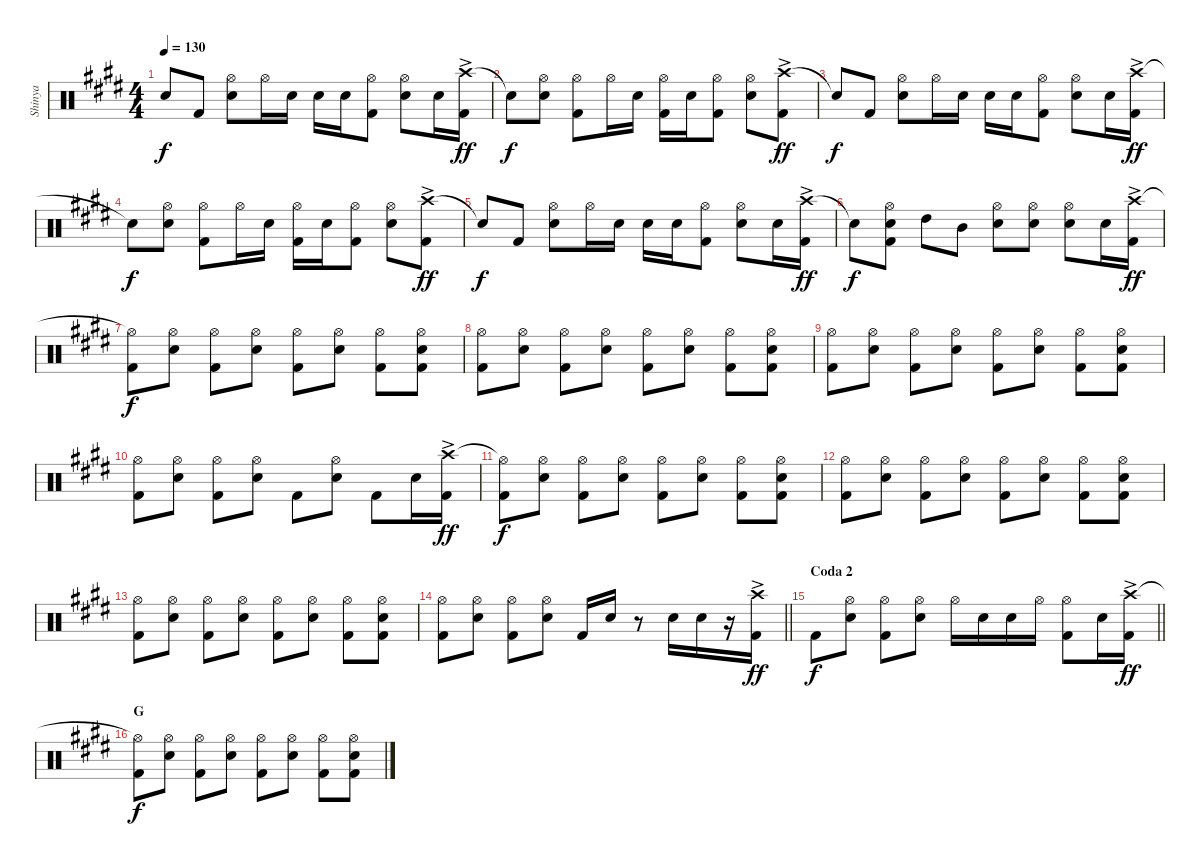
\track ("Shinya" "Shinya") {instrument percussion}
\staff {score}
\articulation defaults
\ts (4 4)
\tempo 130
\clef neutral
\ks c#minor "Snare (hit)"{t}.8{dy f} "Kick (hit) 2".8
("Hi-Hat (open)" "Snare (hit) 2").8 "Hi-Hat (open)".16 "Snare (hit) 2".16 "Snare (hit) 2".16 "Snare (hit) 2".16 ("Hi-Hat (open)" "Kick (hit) 2").8 ("Hi-Hat (open)" "Snare (hit) 2").8 "Snare (hit) 2".16 ("Crash high (hit)"{ac} "Kick (hit) 2").16{dy ff} |
"Snare (hit)"{t}.8{dy f} ("Hi-Hat (open)" "Snare (hit) 2").8 ("Hi-Hat (open)" "Kick (hit) 2").8 "Hi-Hat (open)".16 "Snare (hit) 2".16 ("Hi-Hat (open)" "Kick (hit) 2").16 "Snare (hit) 2".16 ("Hi-Hat (open)" "Kick (hit) 2").8 ("Hi-Hat (open)" "Snare (hit) 2").8 ("Crash high (hit)"{ac} "Kick (hit) 2").8{dy ff} |
"Snare (hit)"{t}.8{dy f} "Kick (hit) 2".8 ("Hi-Hat (open)" "Snare (hit) 2").8 "Hi-Hat (open)".16 "Snare (hit) 2".16 "Snare (hit) 2".16 "Snare (hit) 2".16 ("Hi-Hat (open)" "Kick (hit) 2").8 ("Hi-Hat (open)" "Snare (hit) 2").8 "Snare (hit) 2".16 ("Crash high (hit)"{ac} "Kick (hit) 2").16{dy ff} |
"Snare (hit)"{t}.8{dy f} ("Hi-Hat (open)" "Snare (hit) 2").8 ("Hi-Hat (open)" "Kick (hit) 2").8 "Hi-Hat (open)".16 "Snare (hit) 2".16 ("Hi-Hat (open)" "Kick (hit) 2").16 "Snare (hit) 2".16 ("Hi-Hat (open)" "Kick (hit) 2").8 ("Hi-Hat (open)" "Snare (hit) 2").8 ("Crash high (hit)"{ac} "Kick (hit) 2").8{dy ff} |
"Snare (hit)"{t}.8{dy f} "Kick (hit) 2".8 ("Hi-Hat (open)" "Snare (hit) 2").8 "Hi-Hat (open)".16 "Snare (hit) 2".16 "Snare (hit) 2".16 "Snare (hit) 2".16 ("Hi-Hat (open)" "Kick (hit) 2").8 ("Hi-Hat (open)" "Snare (hit) 2").8 "Snare (hit) 2".16 ("Crash high (hit)"{ac} "Kick (hit) 2").16{dy ff} |
"Snare (hit)"{t}.8{dy f} ("Hi-Hat (open)" "Snare (hit) 2" "Kick (hit) 2").8 "High Tom (hit)".8 "Mid Tom (hit)".8 ("Hi-Hat (open)" "Snare (hit) 2").8 ("Hi-Hat (open)" "Snare (hit) 2").8 ("Hi-Hat (open)" "Snare (hit) 2").8 "Snare (hit) 2".16 ("Crash high (hit)"{ac} "Kick (hit) 2").16{dy ff} |
("Hi-Hat (open)"{t} "Kick (hit) 2").8{dy f} ("Hi-Hat (open)" "Snare (hit) 2").8 ("Hi-Hat (open)" "Kick (hit) 2").8 ("Hi-Hat (open)" "Snare (hit) 2").8 ("Hi-Hat (open)" "Kick (hit) 2").8 ("Hi-Hat (open)" "Snare (hit) 2").8 ("Hi-Hat (open)" "Kick (hit) 2").8 ("Hi-Hat (open)" "Snare (hit) 2" "Kick (hit) 2").8 |
("Hi-Hat (open)" "Kick (hit) 2").8 ("Hi-Hat (open)" "Snare (hit) 2").8 ("Hi-Hat (open)" "Kick (hit) 2").8 ("Hi-Hat (open)" "Snare (hit) 2").8 ("Hi-Hat (open)" "Kick (hit) 2").8 ("Hi-Hat (open)" "Snare (hit) 2").8 ("Hi-Hat (open)" "Kick (hit) 2").8 ("Hi-Hat (open)" "Snare (hit) 2" "Kick (hit) 2").8 |
("Hi-Hat (open)" "Kick (hit) 2").8 ("Hi-Hat (open)" "Snare (hit) 2").8 ("Hi-Hat (open)" "Kick (hit) 2").8 ("Hi-Hat (open)" "Snare (hit) 2").8 ("Hi-Hat (open)" "Kick (hit) 2").8 ("Hi-Hat (open)" "Snare (hit) 2").8 ("Hi-Hat (open)" "Kick (hit) 2").8 ("Hi-Hat (open)" "Snare (hit) 2" "Kick (hit) 2").8 |
("Hi-Hat (open)" "Kick (hit) 2").8 ("Hi-Hat (open)" "Snare (hit) 2").8 ("Hi-Hat (open)" "Kick (hit) 2").8 ("Hi-Hat (open)" "Snare (hit) 2").8 "Kick (hit) 2".8 ("Hi-Hat (open)" "Snare (hit) 2").8 "Kick (hit) 2".8 "Snare (hit) 2".16 ("Crash high (hit)"{ac} "Kick (hit) 2").16{dy ff} |
("Hi-Hat (open)"{t} "Kick (hit) 2").8{dy f} ("Hi-Hat (open)" "Snare (hit) 2").8 ("Hi-Hat (open)" "Kick (hit) 2").8 ("Hi-Hat (open)" "Snare (hit) 2").8 ("Hi-Hat (open)" "Kick (hit) 2").8 ("Hi-Hat (open)" "Snare (hit) 2").8 ("Hi-Hat (open)" "Kick (hit) 2").8 ("Hi-Hat (open)" "Snare (hit) 2" "Kick (hit) 2").8 |
("Hi-Hat (open)" "Kick (hit) 2").8 ("Hi-Hat (open)" "Snare (hit) 2").8 ("Hi-Hat (open)" "Kick (hit) 2").8 ("Hi-Hat (open)" "Snare (hit) 2").8 ("Hi-Hat (open)" "Kick (hit) 2").8 ("Hi-Hat (open)" "Snare (hit) 2").8 ("Hi-Hat (open)" "Kick (hit) 2").8 ("Hi-Hat (open)" "Snare (hit) 2" "Kick (hit) 2").8 |
("Hi-Hat (open)" "Kick (hit) 2").8 ("Hi-Hat (open)" "Snare (hit) 2").8 ("Hi-Hat (open)" "Kick (hit) 2").8 ("Hi-Hat (open)" "Snare (hit) 2").8 ("Hi-Hat (open)" "Kick (hit) 2").8 ("Hi-Hat (open)" "Snare (hit) 2").8 ("Hi-Hat (open)" "Kick (hit) 2").8 ("Hi-Hat (open)" "Snare (hit) 2" "Kick (hit) 2").8 |
\barLineRight lightlight
("Hi-Hat (open)" "Kick (hit) 2").8 ("Hi-Hat (open)" "Snare (hit) 2").8 ("Hi-Hat (open)" "Kick (hit) 2").8 ("Hi-Hat (open)" "Snare (hit) 2").8 "Kick (hit) 2".16 "Snare (hit) 2".16 r.8 "Snare (hit) 2".16 "Snare (hit) 2".16 r.16 ("Crash high (hit)"{ac} "Kick (hit) 2").16{dy ff} |
\section ("" "Coda 2")
\barLineRight lightlight "Kick (hit) 2".8{dy f}
("Hi-Hat (open)" "Snare (hit) 2").8 ("Hi-Hat (open)" "Kick (hit) 2").8 ("Hi-Hat (open)" "Snare (hit) 2").8 "Hi-Hat (open)".16 "Snare (hit) 2".16 "Snare (hit) 2".16 "Hi-Hat (open)".16 ("Hi-Hat (open)" "Kick (hit) 2").8 "Snare (hit) 2".16 ("Crash high (hit)"{ac} "Kick (hit) 2").16{dy ff} |
\section ("" "G")
("Hi-Hat (open)"{t} "Kick (hit) 2").8{dy f} ("Hi-Hat (open)" "Snare (hit) 2").8 ("Hi-Hat (open)" "Kick (hit) 2").8 ("Hi-Hat (open)" "Snare (hit) 2").8 ("Hi-Hat (open)" "Kick (hit) 2").8 ("Hi-Hat (open)" "Snare (hit) 2").8 ("Hi-Hat (open)" "Kick (hit) 2").8 ("Hi-Hat (open)" "Snare (hit) 2" "Kick (hit) 2").8
